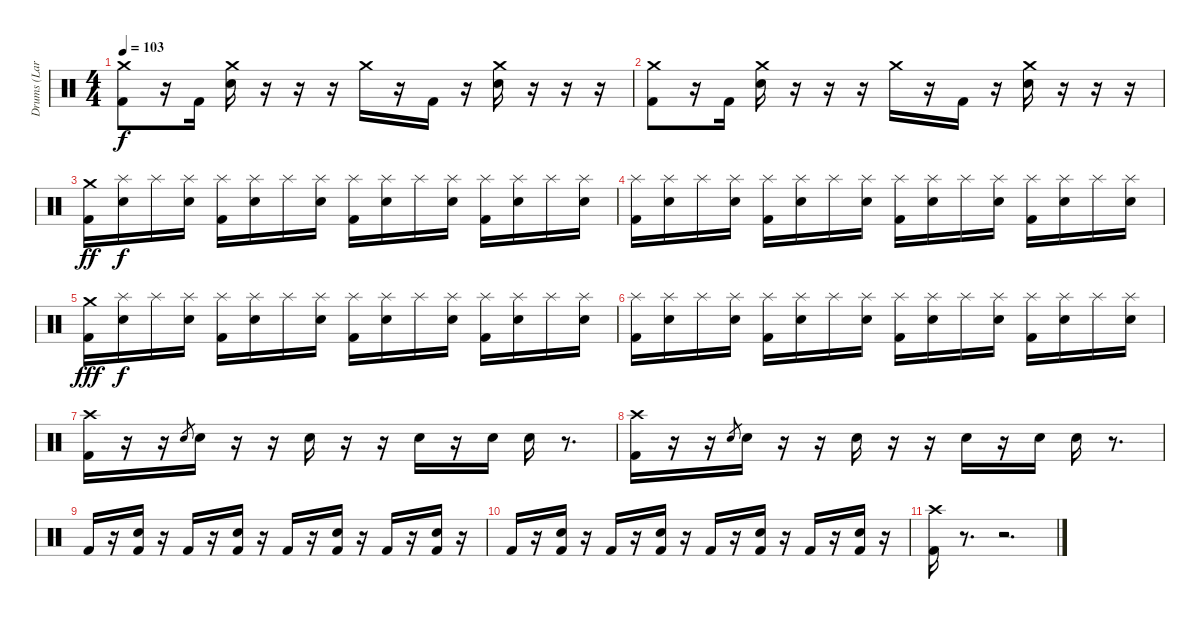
\track ("Drums (Lars)" "Drums (Lar") {instrument percussion}
\staff {score}
\articulation defaults
\ts (4 4)
\tempo 103
\clef neutral
\ks c
("Crash medium (hit)" "Kick (hit) 2").8{dy f} r.16 "Kick (hit) 2".16 ("Crash medium (hit)" "Snare (hit) 2").16 r.16 r.16 r.16 "Crash medium (hit)".16 r.16 "Kick (hit) 2".16 r.16 ("Crash medium (hit)" "Snare (hit) 2").16 r.16 r.16 r.16 |
("Crash medium (hit)" "Kick (hit) 2").8 r.16 "Kick (hit) 2".16 ("Crash medium (hit)" "Snare (hit) 2").16 r.16 r.16 r.16 "Crash medium (hit)".16 r.16 "Kick (hit) 2".16 r.16 ("Crash medium (hit)" "Snare (hit) 2").16 r.16 r.16 r.16 |
("Crash medium (hit)" "Kick (hit) 2").16{dy ff} ("Splash (hit)" "Snare (hit) 2").16{dy f} "Splash (hit)".16 ("Splash (hit)" "Snare (hit) 2").16 ("Splash (hit)" "Kick (hit) 2").16 ("Splash (hit)" "Snare (hit) 2").16 "Splash (hit)".16 ("Splash (hit)" "Snare (hit) 2").16 ("Splash (hit)" "Kick (hit) 2").16 ("Splash (hit)" "Snare (hit) 2").16 "Splash (hit)".16 ("Splash (hit)" "Snare (hit) 2").16 ("Splash (hit)" "Kick (hit) 2").16 ("Splash (hit)" "Snare (hit) 2").16 "Splash (hit)".16 ("Splash (hit)" "Snare (hit) 2").16 |
("Splash (hit)" "Kick (hit) 2").16 ("Splash (hit)" "Snare (hit) 2").16 "Splash (hit)".16 ("Splash (hit)" "Snare (hit) 2").16 ("Splash (hit)" "Kick (hit) 2").16 ("Splash (hit)" "Snare (hit) 2").16 "Splash (hit)".16 ("Splash (hit)" "Snare (hit) 2").16 ("Splash (hit)" "Kick (hit) 2").16 ("Splash (hit)" "Snare (hit) 2").16 "Splash (hit)".16 ("Splash (hit)" "Snare (hit) 2").16 ("Splash (hit)" "Kick (hit) 2").16 ("Splash (hit)" "Snare (hit) 2").16 "Splash (hit)".16 ("Splash (hit)" "Snare (hit) 2").16 |
("Crash medium (hit)" "Kick (hit) 2").16{dy fff} ("Splash (hit)" "Snare (hit) 2").16{dy f} "Splash (hit)".16 ("Splash (hit)" "Snare (hit) 2").16 ("Splash (hit)" "Kick (hit) 2").16 ("Splash (hit)" "Snare (hit) 2").16 "Splash (hit)".16 ("Splash (hit)" "Snare (hit) 2").16 ("Splash (hit)" "Kick (hit) 2").16 ("Splash (hit)" "Snare (hit) 2").16 "Splash (hit)".16 ("Splash (hit)" "Snare (hit) 2").16 ("Splash (hit)" "Kick (hit) 2").16 ("Splash (hit)" "Snare (hit) 2").16 "Splash (hit)".16 ("Splash (hit)" "Snare (hit) 2").16 |
("Splash (hit)" "Kick (hit) 2").16 ("Splash (hit)" "Snare (hit) 2").16 "Splash (hit)".16 ("Splash (hit)" "Snare (hit) 2").16 ("Splash (hit)" "Kick (hit) 2").16 ("Splash (hit)" "Snare (hit) 2").16 "Splash (hit)".16 ("Splash (hit)" "Snare (hit) 2").16 ("Splash (hit)" "Kick (hit) 2").16 ("Splash (hit)" "Snare (hit) 2").16 "Splash (hit)".16 ("Splash (hit)" "Snare (hit) 2").16 ("Splash (hit)" "Kick (hit) 2").16 ("Splash (hit)" "Snare (hit) 2").16 "Splash (hit)".16 ("Splash (hit)" "Snare (hit) 2").16 |
("Crash high (hit)" "Kick (hit) 2").16 r.16 r.16 "Snare (hit) 2".8{gr} "Snare (hit) 2".16 r.16 r.16 "Snare (hit) 2".16 r.16 r.16 "Snare (hit) 2".16 r.16 "Snare (hit) 2".16 "Snare (hit) 2".16 r.8{d} |
("Crash high (hit)" "Kick (hit) 2").16 r.16 r.16 "Snare (hit) 2".8{gr} "Snare (hit) 2".16 r.16 r.16 "Snare (hit) 2".16 r.16 r.16 "Snare (hit) 2".16 r.16 "Snare (hit) 2".16 "Snare (hit) 2".16 r.8{d} |
"Kick (hit) 2".16 r.16 ("Snare (hit) 2" "Kick (hit) 2").16 r.16 "Kick (hit) 2".16 r.16 ("Snare (hit) 2" "Kick (hit) 2").16 r.16 "Kick (hit) 2".16 r.16 ("Snare (hit) 2" "Kick (hit) 2").16 r.16 "Kick (hit) 2".16 r.16 ("Snare (hit) 2" "Kick (hit) 2").16 r.16 |
"Kick (hit) 2".16 r.16 ("Snare (hit) 2" "Kick (hit) 2").16 r.16 "Kick (hit) 2".16 r.16 ("Snare (hit) 2" "Kick (hit) 2").16 r.16 "Kick (hit) 2".16 r.16 ("Snare (hit) 2" "Kick (hit) 2").16 r.16 "Kick (hit) 2".16 r.16 ("Snare (hit) 2" "Kick (hit) 2").16 r.16 |
("Crash high (hit)" "Kick (hit) 2").16 r.8{d} r.2{d}
